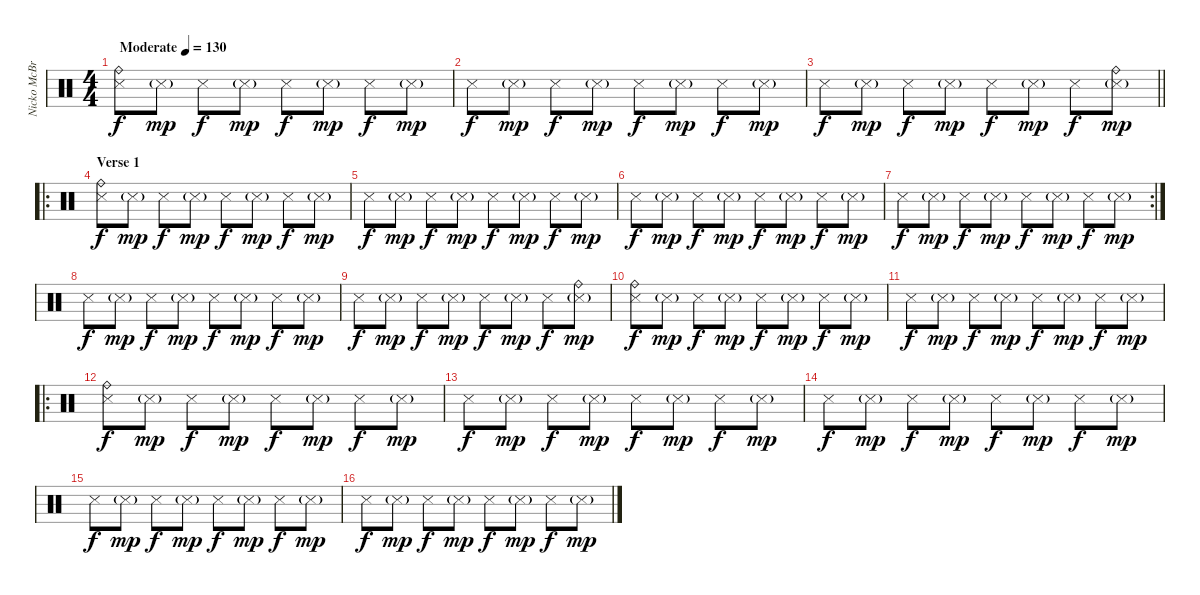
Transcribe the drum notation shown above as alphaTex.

\track ("Nicko McBrain" "Nicko McBr") {instrument percussion}
\staff {score}
\articulation defaults
\ts (4 4)
\tempo (130 "Moderate")
\clef neutral
\ks c
("Ride (bell)" "Snare (side stick) 3").8{dy f} "Snare (side stick) 3"{g}.8{dy mp} "Snare (side stick) 3".8{dy f} "Snare (side stick) 3"{g}.8{dy mp} "Snare (side stick) 3".8{dy f} "Snare (side stick) 3"{g}.8{dy mp} "Snare (side stick) 3".8{dy f} "Snare (side stick) 3"{g}.8{dy mp} |
"Snare (side stick) 3".8{dy f} "Snare (side stick) 3"{g}.8{dy mp} "Snare (side stick) 3".8{dy f} "Snare (side stick) 3"{g}.8{dy mp} "Snare (side stick) 3".8{dy f} "Snare (side stick) 3"{g}.8{dy mp} "Snare (side stick) 3".8{dy f} "Snare (side stick) 3"{g}.8{dy mp} |
\barLineRight lightlight "Snare (side stick) 3".8{dy f} "Snare (side stick) 3"{g}.8{dy mp} "Snare (side stick) 3".8{dy f} "Snare (side stick) 3"{g}.8{dy mp} "Snare (side stick) 3".8{dy f} "Snare (side stick) 3"{g}.8{dy mp} "Snare (side stick) 3".8{dy f}
("Ride (bell)" "Snare (side stick) 3"{g}).8{dy mp} |
\ro
\section ("" "Verse 1")
("Ride (bell)" "Snare (side stick) 3").8{dy f} "Snare (side stick) 3"{g}.8{dy mp} "Snare (side stick) 3".8{dy f} "Snare (side stick) 3"{g}.8{dy mp} "Snare (side stick) 3".8{dy f} "Snare (side stick) 3"{g}.8{dy mp} "Snare (side stick) 3".8{dy f} "Snare (side stick) 3"{g}.8{dy mp} |
"Snare (side stick) 3".8{dy f} "Snare (side stick) 3"{g}.8{dy mp} "Snare (side stick) 3".8{dy f} "Snare (side stick) 3"{g}.8{dy mp} "Snare (side stick) 3".8{dy f} "Snare (side stick) 3"{g}.8{dy mp} "Snare (side stick) 3".8{dy f} "Snare (side stick) 3"{g}.8{dy mp} |
"Snare (side stick) 3".8{dy f} "Snare (side stick) 3"{g}.8{dy mp} "Snare (side stick) 3".8{dy f} "Snare (side stick) 3"{g}.8{dy mp} "Snare (side stick) 3".8{dy f} "Snare (side stick) 3"{g}.8{dy mp} "Snare (side stick) 3".8{dy f} "Snare (side stick) 3"{g}.8{dy mp} |
\rc 2 "Snare (side stick) 3".8{dy f} "Snare (side stick) 3"{g}.8{dy mp} "Snare (side stick) 3".8{dy f} "Snare (side stick) 3"{g}.8{dy mp} "Snare (side stick) 3".8{dy f} "Snare (side stick) 3"{g}.8{dy mp} "Snare (side stick) 3".8{dy f} "Snare (side stick) 3"{g}.8{dy mp}
|
"Snare (side stick) 3".8{dy f} "Snare (side stick) 3"{g}.8{dy mp} "Snare (side stick) 3".8{dy f} "Snare (side stick) 3"{g}.8{dy mp} "Snare (side stick) 3".8{dy f} "Snare (side stick) 3"{g}.8{dy mp} "Snare (side stick) 3".8{dy f} "Snare (side stick) 3"{g}.8{dy mp} |
"Snare (side stick) 3".8{dy f} "Snare (side stick) 3"{g}.8{dy mp} "Snare (side stick) 3".8{dy f} "Snare (side stick) 3"{g}.8{dy mp} "Snare (side stick) 3".8{dy f} "Snare (side stick) 3"{g}.8{dy mp} "Snare (side stick) 3".8{dy f} ("Ride (bell)" "Snare (side stick) 3"{g}).8{dy mp} |
("Ride (bell)" "Snare (side stick) 3").8{dy f} "Snare (side stick) 3"{g}.8{dy mp} "Snare (side stick) 3".8{dy f} "Snare (side stick) 3"{g}.8{dy mp} "Snare (side stick) 3".8{dy f} "Snare (side stick) 3"{g}.8{dy mp} "Snare (side stick) 3".8{dy f} "Snare (side stick) 3"{g}.8{dy mp} |
"Snare (side stick) 3".8{dy f} "Snare (side stick) 3"{g}.8{dy mp} "Snare (side stick) 3".8{dy f} "Snare (side stick) 3"{g}.8{dy mp} "Snare (side stick) 3".8{dy f} "Snare (side stick) 3"{g}.8{dy mp} "Snare (side stick) 3".8{dy f} "Snare (side stick) 3"{g}.8{dy mp} |
\ro
("Ride (bell)" "Snare (side stick) 3").8{dy f} "Snare (side stick) 3"{g}.8{dy mp} "Snare (side stick) 3".8{dy f} "Snare (side stick) 3"{g}.8{dy mp} "Snare (side stick) 3".8{dy f} "Snare (side stick) 3"{g}.8{dy mp} "Snare (side stick) 3".8{dy f} "Snare (side stick) 3"{g}.8{dy mp} |
"Snare (side stick) 3".8{dy f} "Snare (side stick) 3"{g}.8{dy mp} "Snare (side stick) 3".8{dy f} "Snare (side stick) 3"{g}.8{dy mp} "Snare (side stick) 3".8{dy f} "Snare (side stick) 3"{g}.8{dy mp} "Snare (side stick) 3".8{dy f} "Snare (side stick) 3"{g}.8{dy mp} |
"Snare (side stick) 3".8{dy f} "Snare (side stick) 3"{g}.8{dy mp} "Snare (side stick) 3".8{dy f} "Snare (side stick) 3"{g}.8{dy mp} "Snare (side stick) 3".8{dy f} "Snare (side stick) 3"{g}.8{dy mp} "Snare (side stick) 3".8{dy f} "Snare (side stick) 3"{g}.8{dy mp} |
"Snare (side stick) 3".8{dy f} "Snare (side stick) 3"{g}.8{dy mp} "Snare (side stick) 3".8{dy f} "Snare (side stick) 3"{g}.8{dy mp} "Snare (side stick) 3".8{dy f} "Snare (side stick) 3"{g}.8{dy mp} "Snare (side stick) 3".8{dy f} "Snare (side stick) 3"{g}.8{dy mp} |
"Snare (side stick) 3".8{dy f} "Snare (side stick) 3"{g}.8{dy mp} "Snare (side stick) 3".8{dy f} "Snare (side stick) 3"{g}.8{dy mp} "Snare (side stick) 3".8{dy f} "Snare (side stick) 3"{g}.8{dy mp} "Snare (side stick) 3".8{dy f} "Snare (side stick) 3"{g}.8{dy mp}
